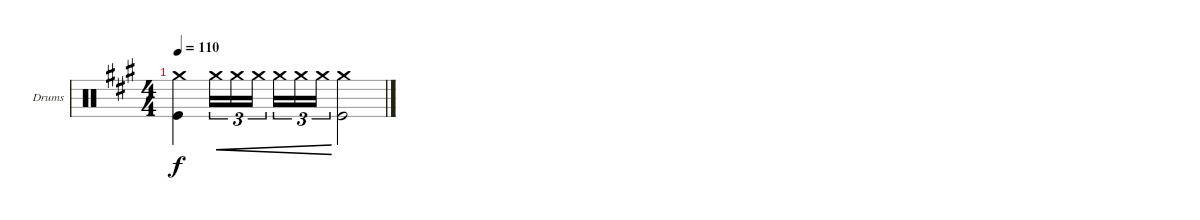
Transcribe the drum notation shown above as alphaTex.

\bracketExtendMode groupsimilarinstruments
\firstSystemTrackNameOrientation horizontal
\otherSystemsTrackNameOrientation horizontal
\track ("Drumkit" "Drums") {instrument percussion}
\staff {score}
\articulation defaults
\ts (4 4)
\tempo 110
\clef neutral
\ks a
("Kick (hit)" "Crash medium (hit)").4{dy f} "Crash medium (hit)".16{tu (3 2) cre} "Crash medium (hit)".16{tu (3 2) cre} "Crash medium (hit)".16{tu (3 2) cre} "Crash medium (hit)".16{tu (3 2) cre} "Crash medium (hit)".16{tu (3 2) cre} "Crash medium (hit)".16{tu (3 2) cre} ("Kick (hit)" "Crash medium (hit)").2
